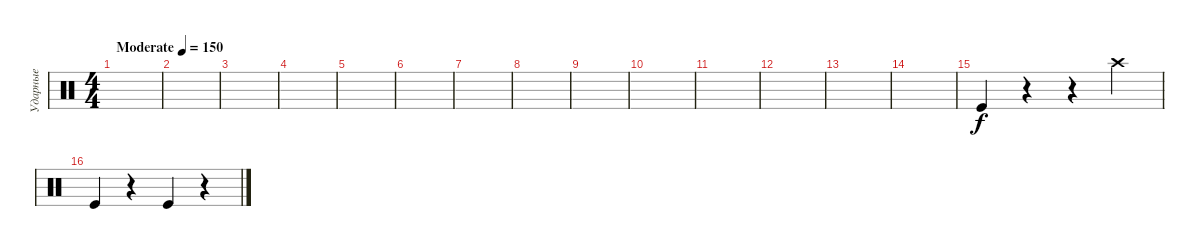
\track ("Ударные" "Ударные") {instrument percussion}
\staff {score}
\articulation defaults
\ts (4 4)
\tempo (150 "Moderate")
\clef neutral
\ks c
|
|
|
|
|
|
|
|
|
|
|
|
|
|
"Kick (hit)".4 r.4 r.4 "Crash high (hit)".4 |
"Kick (hit)".4 r.4 "Kick (hit)".4 r.4
